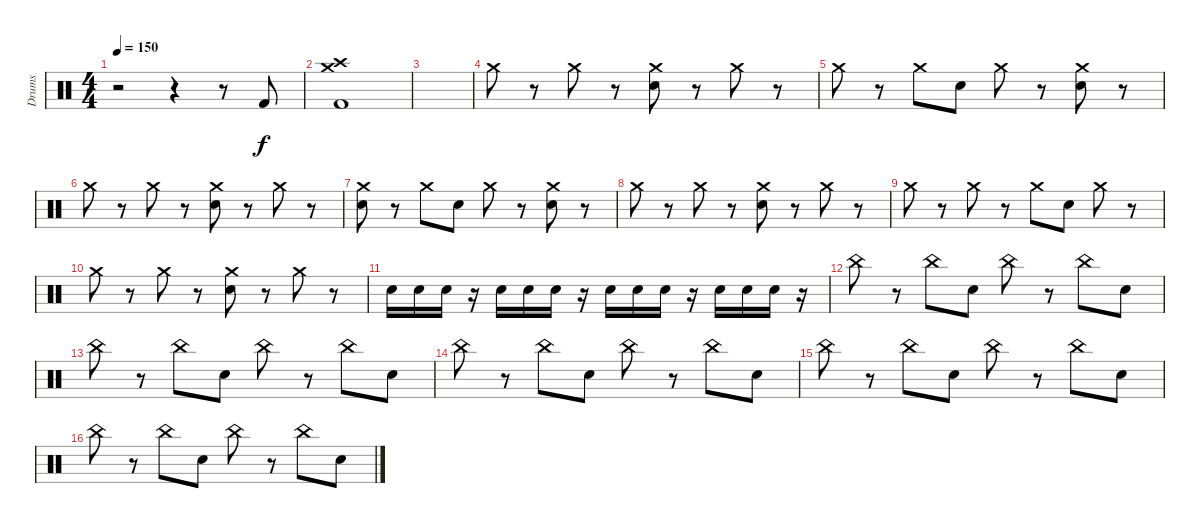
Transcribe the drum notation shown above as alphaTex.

\track ("Drums" "Drums") {instrument percussion}
\staff {score}
\articulation defaults
\ts (4 4)
\tempo 150
\clef neutral
\ks c
r.2{dy f} r.4 r.8 "Kick (hit) 2".8 |
("Crash medium (hit)" "Crash high (hit)" "Kick (hit) 2").1 |
|
"Crash medium (hit)".8 r.8 "Crash medium (hit)".8 r.8 ("Crash medium (hit)" "Electric Snare (hit)").8 r.8 "Crash medium (hit)".8 r.8 |
"Crash medium (hit)".8 r.8 "Crash medium (hit)".8 "Electric Snare (hit)".8 "Crash medium (hit)".8 r.8 ("Crash medium (hit)" "Electric Snare (hit)").8 r.8 |
"Crash medium (hit)".8 r.8 "Crash medium (hit)".8 r.8 ("Crash medium (hit)" "Electric Snare (hit)").8 r.8 "Crash medium (hit)".8 r.8 |
("Crash medium (hit)" "Electric Snare (hit)").8 r.8 "Crash medium (hit)".8 "Electric Snare (hit)".8 "Crash medium (hit)".8 r.8 ("Crash medium (hit)" "Electric Snare (hit)").8 r.8 |
"Crash medium (hit)".8 r.8 "Crash medium (hit)".8 r.8 ("Crash medium (hit)" "Electric Snare (hit)").8 r.8 "Crash medium (hit)".8 r.8 |
"Crash medium (hit)".8 r.8 "Crash medium (hit)".8 r.8 "Crash medium (hit)".8 "Electric Snare (hit)".8 "Crash medium (hit)".8 r.8 |
"Crash medium (hit)".8 r.8 "Crash medium (hit)".8 r.8 ("Crash medium (hit)" "Electric Snare (hit)").8 r.8 "Crash medium (hit)".8 r.8 |
"Electric Snare (hit)".16 "Electric Snare (hit)".16 "Electric Snare (hit)".16 r.16 "Electric Snare (hit)".16 "Electric Snare (hit)".16 "Electric Snare (hit)".16 r.16 "Electric Snare (hit)".16 "Electric Snare (hit)".16 "Electric Snare (hit)".16 r.16 "Electric Snare (hit)".16 "Electric Snare (hit)".16 "Electric Snare (hit)".16 r.16 |
"China (hit)".8 r.8 "China (hit)".8 "Electric Snare (hit)".8 "China (hit)".8 r.8 "China (hit)".8 "Electric Snare (hit)".8 |
"China (hit)".8 r.8 "China (hit)".8 "Electric Snare (hit)".8 "China (hit)".8 r.8 "China (hit)".8 "Electric Snare (hit)".8 |
"China (hit)".8 r.8 "China (hit)".8 "Electric Snare (hit)".8 "China (hit)".8 r.8 "China (hit)".8 "Electric Snare (hit)".8 |
"China (hit)".8 r.8 "China (hit)".8 "Electric Snare (hit)".8 "China (hit)".8 r.8 "China (hit)".8 "Electric Snare (hit)".8 |
"China (hit)".8 r.8 "China (hit)".8 "Electric Snare (hit)".8 "China (hit)".8 r.8 "China (hit)".8 "Electric Snare (hit)".8
